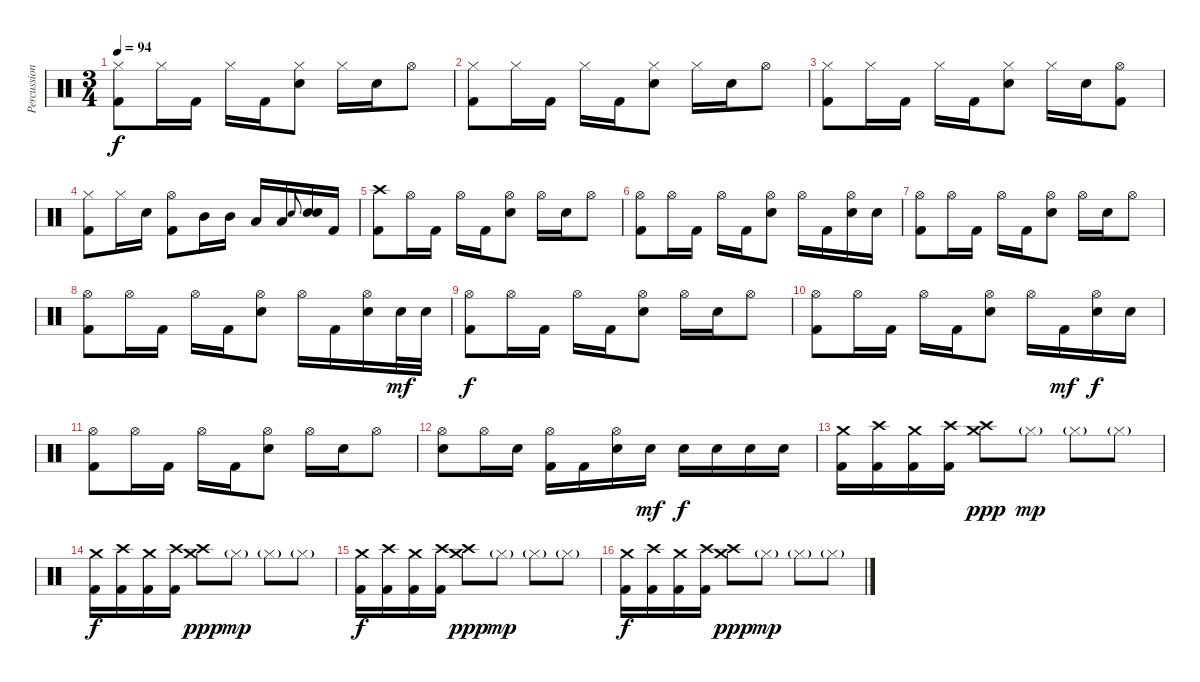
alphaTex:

\track ("Percussion" "Percussion") {instrument percussion}
\staff {score}
\articulation defaults
\ts (3 4)
\tempo 94
\clef neutral
\ks c
("Hi-Hat (closed)" "Kick (hit) 2").8{dy f} "Hi-Hat (closed)".16 "Kick (hit) 2".16 "Hi-Hat (closed)".16 "Kick (hit) 2".16 ("Hi-Hat (closed)" "Electric Snare (hit)").8 "Hi-Hat (closed)".16 "Electric Snare (hit)".16 "Hi-Hat (open)".8 |
("Hi-Hat (closed)" "Kick (hit) 2").8 "Hi-Hat (closed)".16 "Kick (hit) 2".16 "Hi-Hat (closed)".16 "Kick (hit) 2".16 ("Hi-Hat (closed)" "Electric Snare (hit)").8 "Hi-Hat (closed)".16 "Electric Snare (hit)".16 "Hi-Hat (open)".8 |
("Hi-Hat (closed)" "Kick (hit) 2").8 "Hi-Hat (closed)".16 "Kick (hit) 2".16 "Hi-Hat (closed)".16 "Kick (hit) 2".16 ("Hi-Hat (closed)" "Electric Snare (hit)").8 "Hi-Hat (closed)".16 "Electric Snare (hit)".16 ("Hi-Hat (open)" "Kick (hit) 2").8 |
("Hi-Hat (closed)" "Kick (hit) 2").8 "Hi-Hat (closed)".16 "Electric Snare (hit)".16 ("Hi-Hat (open)" "Kick (hit) 2").8 "Mid Tom (hit)".16 "Mid Tom (hit)".16 "Low Tom (hit)".16 "Low Tom (hit)".16 "Electric Snare (hit)".8{gr onbeat} ("Electric Snare (hit)" "Electric Snare (hit)").16 "Kick (hit) 2".16 |
("Crash high (hit)" "Kick (hit) 2").8 "Hi-Hat (open)".16 "Kick (hit) 2".16 "Hi-Hat (open)".16 "Kick (hit) 2".16 ("Hi-Hat (open)" "Electric Snare (hit)").8 "Hi-Hat (open)".16 "Electric Snare (hit)".16 "Hi-Hat (open)".8 |
("Hi-Hat (open)" "Kick (hit) 2").8 "Hi-Hat (open)".16 "Kick (hit) 2".16 "Hi-Hat (open)".16 "Kick (hit) 2".16 ("Hi-Hat (open)" "Electric Snare (hit)").8 "Hi-Hat (open)".16 "Kick (hit) 2".16 ("Hi-Hat (open)" "Electric Snare (hit)").16 "Electric Snare (hit)".16 |
("Hi-Hat (open)" "Kick (hit) 2").8 "Hi-Hat (open)".16 "Kick (hit) 2".16 "Hi-Hat (open)".16 "Kick (hit) 2".16 ("Hi-Hat (open)" "Electric Snare (hit)").8 "Hi-Hat (open)".16 "Electric Snare (hit)".16 "Hi-Hat (open)".8 |
("Hi-Hat (open)" "Kick (hit) 2").8 "Hi-Hat (open)".16 "Kick (hit) 2".16 "Hi-Hat (open)".16 "Kick (hit) 2".16 ("Hi-Hat (open)" "Electric Snare (hit)").8 "Hi-Hat (open)".16 "Kick (hit) 2".16 ("Hi-Hat (open)" "Electric Snare (hit)").16 "Electric Snare (hit)".32{dy mf} "Electric Snare (hit)".32 |
("Hi-Hat (open)" "Kick (hit) 2").8{dy f} "Hi-Hat (open)".16 "Kick (hit) 2".16 "Hi-Hat (open)".16 "Kick (hit) 2".16 ("Hi-Hat (open)" "Electric Snare (hit)").8 "Hi-Hat (open)".16 "Electric Snare (hit)".16 "Hi-Hat (open)".8 |
("Hi-Hat (open)" "Kick (hit) 2").8 "Hi-Hat (open)".16 "Kick (hit) 2".16 "Hi-Hat (open)".16 "Kick (hit) 2".16 ("Hi-Hat (open)" "Electric Snare (hit)").8 "Hi-Hat (open)".16 "Kick (hit) 2".16{dy mf} ("Hi-Hat (open)" "Electric Snare (hit)").16{dy f} "Electric Snare (hit)".16 |
("Hi-Hat (open)" "Kick (hit) 2").8 "Hi-Hat (open)".16 "Kick (hit) 2".16 "Hi-Hat (open)".16 "Kick (hit) 2".16 ("Hi-Hat (open)" "Electric Snare (hit)").8 "Hi-Hat (open)".16 "Electric Snare (hit)".16 "Hi-Hat (open)".8 |
("Hi-Hat (open)" "Electric Snare (hit)").8 "Hi-Hat (open)".16 "Electric Snare (hit)".16 ("Hi-Hat (open)" "Kick (hit) 2").16 "Kick (hit) 2".16 ("Hi-Hat (open)" "Electric Snare (hit)").16 "Electric Snare (hit)".16{dy mf} "Electric Snare (hit)".16{dy f} "Electric Snare (hit)".16 "Electric Snare (hit)".16 "Electric Snare (hit)".16 |
("Crash medium (hit)" "Kick (hit) 2").16 ("Crash high (hit)" "Kick (hit) 2").16 ("Crash medium (hit)" "Kick (hit) 2").16 ("Crash high (hit)" "Kick (hit) 2").16 ("Crash medium (hit)" "Crash high (hit)").8{dy ppp} "Hi-Hat (closed)"{g}.8{dy mp} "Hi-Hat (closed)"{g}.8 "Hi-Hat (closed)"{g}.8 |
("Crash medium (hit)" "Kick (hit) 2").16{dy f} ("Crash high (hit)" "Kick (hit) 2").16 ("Crash medium (hit)" "Kick (hit) 2").16 ("Crash high (hit)" "Kick (hit) 2").16 ("Crash medium (hit)" "Crash high (hit)").8{dy ppp} "Hi-Hat (closed)"{g}.8{dy mp} "Hi-Hat (closed)"{g}.8 "Hi-Hat (closed)"{g}.8 |
("Crash medium (hit)" "Kick (hit) 2").16{dy f} ("Crash high (hit)" "Kick (hit) 2").16 ("Crash medium (hit)" "Kick (hit) 2").16 ("Crash high (hit)" "Kick (hit) 2").16 ("Crash medium (hit)" "Crash high (hit)").8{dy ppp} "Hi-Hat (closed)"{g}.8{dy mp} "Hi-Hat (closed)"{g}.8 "Hi-Hat (closed)"{g}.8 |
("Crash medium (hit)" "Kick (hit) 2").16{dy f} ("Crash high (hit)" "Kick (hit) 2").16 ("Crash medium (hit)" "Kick (hit) 2").16 ("Crash high (hit)" "Kick (hit) 2").16 ("Crash medium (hit)" "Crash high (hit)").8{dy ppp} "Hi-Hat (closed)"{g}.8{dy mp} "Hi-Hat (closed)"{g}.8 "Hi-Hat (closed)"{g}.8
